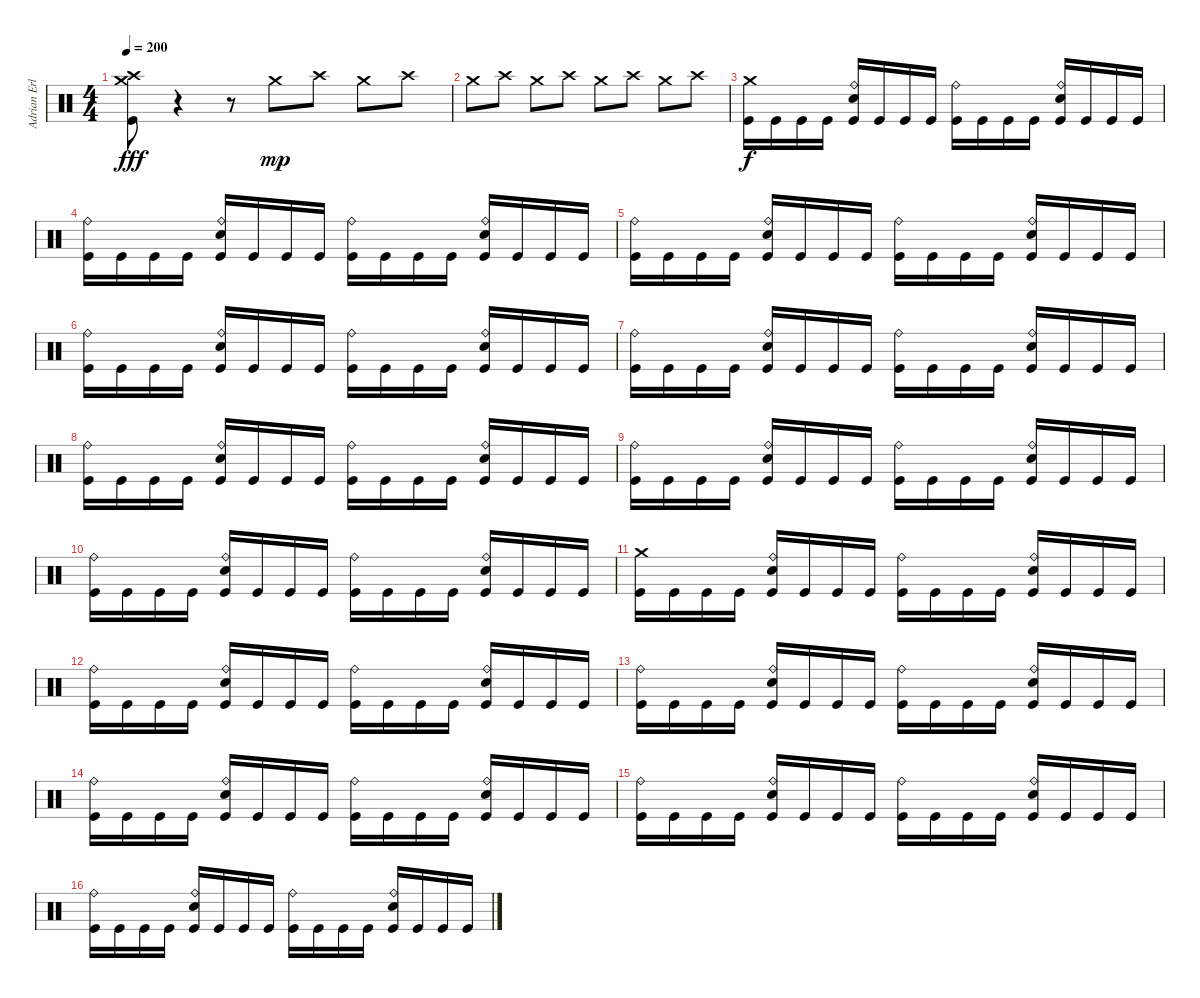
\track ("Adrian Erlandsson" "Adrian Erl") {instrument percussion}
\staff {score}
\articulation defaults
\ts (4 4)
\tempo 200
\clef neutral
\ks c
("Crash medium (hit)" "Crash high (hit)" "Kick (hit)").8{dy fff} r.4 r.8 "Crash medium (hit)".8{dy mp} "Crash high (hit)".8 "Crash medium (hit)".8 "Crash high (hit)".8 |
"Crash medium (hit)".8 "Crash high (hit)".8 "Crash medium (hit)".8 "Crash high (hit)".8 "Crash medium (hit)".8 "Crash high (hit)".8 "Crash medium (hit)".8 "Crash high (hit)".8 |
("Crash medium (hit)" "Kick (hit)").16{dy f} "Kick (hit)".16 "Kick (hit)".16 "Kick (hit)".16 ("Ride (bell)" "Electric Snare (hit)" "Kick (hit)").16 "Kick (hit)".16 "Kick (hit)".16 "Kick (hit)".16 ("Ride (bell)" "Kick (hit)").16 "Kick (hit)".16 "Kick (hit)".16 "Kick (hit)".16 ("Ride (bell)" "Electric Snare (hit)" "Kick (hit)").16 "Kick (hit)".16 "Kick (hit)".16 "Kick (hit)".16 |
("Ride (bell)" "Kick (hit)").16 "Kick (hit)".16 "Kick (hit)".16 "Kick (hit)".16 ("Ride (bell)" "Electric Snare (hit)" "Kick (hit)").16 "Kick (hit)".16 "Kick (hit)".16 "Kick (hit)".16 ("Ride (bell)" "Kick (hit)").16 "Kick (hit)".16 "Kick (hit)".16 "Kick (hit)".16 ("Ride (bell)" "Electric Snare (hit)" "Kick (hit)").16 "Kick (hit)".16 "Kick (hit)".16 "Kick (hit)".16 |
("Ride (bell)" "Kick (hit)").16 "Kick (hit)".16 "Kick (hit)".16 "Kick (hit)".16 ("Ride (bell)" "Electric Snare (hit)" "Kick (hit)").16 "Kick (hit)".16 "Kick (hit)".16 "Kick (hit)".16 ("Ride (bell)" "Kick (hit)").16 "Kick (hit)".16 "Kick (hit)".16 "Kick (hit)".16 ("Ride (bell)" "Electric Snare (hit)" "Kick (hit)").16 "Kick (hit)".16 "Kick (hit)".16 "Kick (hit)".16 |
("Ride (bell)" "Kick (hit)").16 "Kick (hit)".16 "Kick (hit)".16 "Kick (hit)".16 ("Ride (bell)" "Electric Snare (hit)" "Kick (hit)").16 "Kick (hit)".16 "Kick (hit)".16 "Kick (hit)".16 ("Ride (bell)" "Kick (hit)").16 "Kick (hit)".16 "Kick (hit)".16 "Kick (hit)".16 ("Ride (bell)" "Electric Snare (hit)" "Kick (hit)").16 "Kick (hit)".16 "Kick (hit)".16 "Kick (hit)".16 |
("Ride (bell)" "Kick (hit)").16 "Kick (hit)".16 "Kick (hit)".16 "Kick (hit)".16 ("Ride (bell)" "Electric Snare (hit)" "Kick (hit)").16 "Kick (hit)".16 "Kick (hit)".16 "Kick (hit)".16 ("Ride (bell)" "Kick (hit)").16 "Kick (hit)".16 "Kick (hit)".16 "Kick (hit)".16 ("Ride (bell)" "Electric Snare (hit)" "Kick (hit)").16 "Kick (hit)".16 "Kick (hit)".16 "Kick (hit)".16 |
("Ride (bell)" "Kick (hit)").16 "Kick (hit)".16 "Kick (hit)".16 "Kick (hit)".16 ("Ride (bell)" "Electric Snare (hit)" "Kick (hit)").16 "Kick (hit)".16 "Kick (hit)".16 "Kick (hit)".16 ("Ride (bell)" "Kick (hit)").16 "Kick (hit)".16 "Kick (hit)".16 "Kick (hit)".16 ("Ride (bell)" "Electric Snare (hit)" "Kick (hit)").16 "Kick (hit)".16 "Kick (hit)".16 "Kick (hit)".16 |
("Ride (bell)" "Kick (hit)").16 "Kick (hit)".16 "Kick (hit)".16 "Kick (hit)".16 ("Ride (bell)" "Electric Snare (hit)" "Kick (hit)").16 "Kick (hit)".16 "Kick (hit)".16 "Kick (hit)".16 ("Ride (bell)" "Kick (hit)").16 "Kick (hit)".16 "Kick (hit)".16 "Kick (hit)".16 ("Ride (bell)" "Electric Snare (hit)" "Kick (hit)").16 "Kick (hit)".16 "Kick (hit)".16 "Kick (hit)".16 |
("Ride (bell)" "Kick (hit)").16 "Kick (hit)".16 "Kick (hit)".16 "Kick (hit)".16 ("Ride (bell)" "Electric Snare (hit)" "Kick (hit)").16 "Kick (hit)".16 "Kick (hit)".16 "Kick (hit)".16 ("Ride (bell)" "Kick (hit)").16 "Kick (hit)".16 "Kick (hit)".16 "Kick (hit)".16 ("Ride (bell)" "Electric Snare (hit)" "Kick (hit)").16 "Kick (hit)".16 "Kick (hit)".16 "Kick (hit)".16 |
("Crash medium (hit)" "Kick (hit)").16 "Kick (hit)".16 "Kick (hit)".16 "Kick (hit)".16 ("Ride (bell)" "Electric Snare (hit)" "Kick (hit)").16 "Kick (hit)".16 "Kick (hit)".16 "Kick (hit)".16 ("Ride (bell)" "Kick (hit)").16 "Kick (hit)".16 "Kick (hit)".16 "Kick (hit)".16 ("Ride (bell)" "Electric Snare (hit)" "Kick (hit)").16 "Kick (hit)".16 "Kick (hit)".16 "Kick (hit)".16 |
("Ride (bell)" "Kick (hit)").16 "Kick (hit)".16 "Kick (hit)".16 "Kick (hit)".16 ("Ride (bell)" "Electric Snare (hit)" "Kick (hit)").16 "Kick (hit)".16 "Kick (hit)".16 "Kick (hit)".16 ("Ride (bell)" "Kick (hit)").16 "Kick (hit)".16 "Kick (hit)".16 "Kick (hit)".16 ("Ride (bell)" "Electric Snare (hit)" "Kick (hit)").16 "Kick (hit)".16 "Kick (hit)".16 "Kick (hit)".16 |
("Ride (bell)" "Kick (hit)").16 "Kick (hit)".16 "Kick (hit)".16 "Kick (hit)".16 ("Ride (bell)" "Electric Snare (hit)" "Kick (hit)").16 "Kick (hit)".16 "Kick (hit)".16 "Kick (hit)".16 ("Ride (bell)" "Kick (hit)").16 "Kick (hit)".16 "Kick (hit)".16 "Kick (hit)".16 ("Ride (bell)" "Electric Snare (hit)" "Kick (hit)").16 "Kick (hit)".16 "Kick (hit)".16 "Kick (hit)".16 |
("Ride (bell)" "Kick (hit)").16 "Kick (hit)".16 "Kick (hit)".16 "Kick (hit)".16 ("Ride (bell)" "Electric Snare (hit)" "Kick (hit)").16 "Kick (hit)".16 "Kick (hit)".16 "Kick (hit)".16 ("Ride (bell)" "Kick (hit)").16 "Kick (hit)".16 "Kick (hit)".16 "Kick (hit)".16 ("Ride (bell)" "Electric Snare (hit)" "Kick (hit)").16 "Kick (hit)".16 "Kick (hit)".16 "Kick (hit)".16 |
("Ride (bell)" "Kick (hit)").16 "Kick (hit)".16 "Kick (hit)".16 "Kick (hit)".16 ("Ride (bell)" "Electric Snare (hit)" "Kick (hit)").16 "Kick (hit)".16 "Kick (hit)".16 "Kick (hit)".16 ("Ride (bell)" "Kick (hit)").16 "Kick (hit)".16 "Kick (hit)".16 "Kick (hit)".16 ("Ride (bell)" "Electric Snare (hit)" "Kick (hit)").16 "Kick (hit)".16 "Kick (hit)".16 "Kick (hit)".16 |
("Ride (bell)" "Kick (hit)").16 "Kick (hit)".16 "Kick (hit)".16 "Kick (hit)".16 ("Ride (bell)" "Electric Snare (hit)" "Kick (hit)").16 "Kick (hit)".16 "Kick (hit)".16 "Kick (hit)".16 ("Ride (bell)" "Kick (hit)").16 "Kick (hit)".16 "Kick (hit)".16 "Kick (hit)".16 ("Ride (bell)" "Electric Snare (hit)" "Kick (hit)").16 "Kick (hit)".16 "Kick (hit)".16 "Kick (hit)".16
